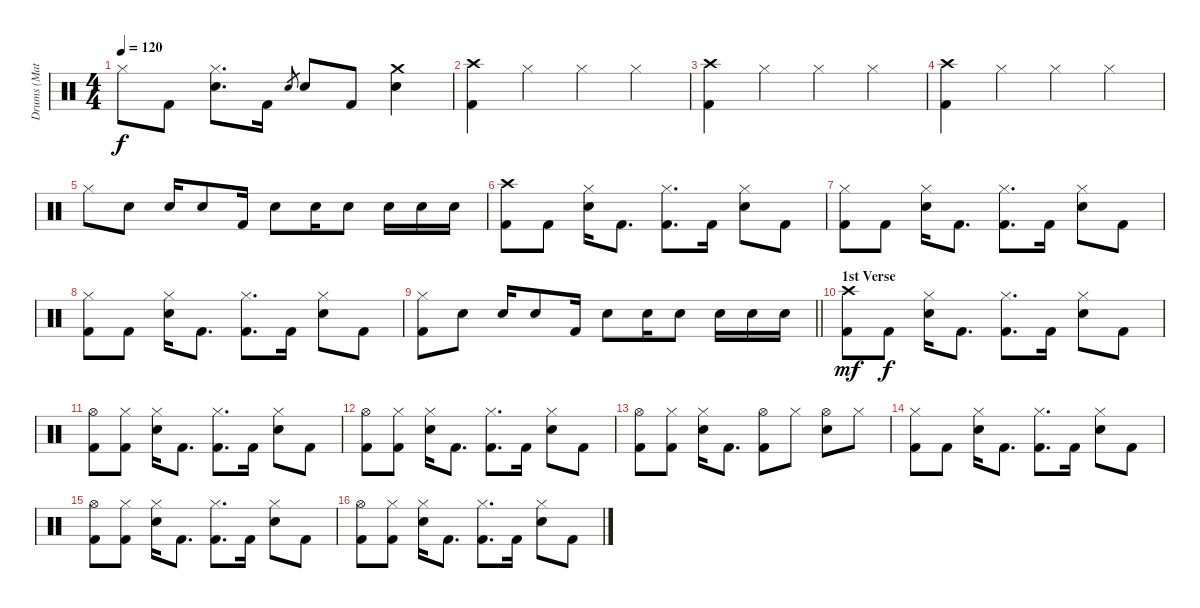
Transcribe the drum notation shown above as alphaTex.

\track ("Drums (Matt)" "Drums (Mat") {instrument percussion}
\staff {score}
\articulation defaults
\ts (4 4)
\tempo 120
\clef neutral
\ks c "Hi-Hat (closed)".8{dy f} "Kick (hit) 2".8
("Hi-Hat (closed)" "Snare (hit) 2").8{d} "Kick (hit) 2".16 "Snare (hit) 2".8{gr} "Snare (hit) 2".8 "Kick (hit) 2".8 ("Crash medium (hit)" "Snare (hit) 2").4 |
("Crash high (hit)" "Kick (hit) 2").4 "Hi-Hat (closed)".4 "Hi-Hat (closed)".4 "Hi-Hat (closed)".4 |
("Crash high (hit)" "Kick (hit) 2").4 "Hi-Hat (closed)".4 "Hi-Hat (closed)".4 "Hi-Hat (closed)".4 |
("Crash high (hit)" "Kick (hit) 2").4 "Hi-Hat (closed)".4 "Hi-Hat (closed)".4 "Hi-Hat (closed)".4 |
"Hi-Hat (closed)".8 "Snare (hit) 2".8 "Snare (hit) 2".16 "Snare (hit) 2".8 "Kick (hit) 2".16 "Snare (hit) 2".8 "Snare (hit) 2".16 "Snare (hit) 2".8 "Snare (hit) 2".16 "Snare (hit) 2".16 "Snare (hit) 2".16 |
("Crash high (hit)" "Kick (hit) 2").8 "Kick (hit) 2".8 ("Hi-Hat (closed)" "Snare (hit) 2").16 "Kick (hit) 2".8{d} ("Hi-Hat (closed)" "Kick (hit) 2").8{d} "Kick (hit) 2".16 ("Hi-Hat (closed)" "Snare (hit) 2").8 "Kick (hit) 2".8 |
("Hi-Hat (closed)" "Kick (hit) 2").8 "Kick (hit) 2".8 ("Hi-Hat (closed)" "Snare (hit) 2").16 "Kick (hit) 2".8{d} ("Hi-Hat (closed)" "Kick (hit) 2").8{d} "Kick (hit) 2".16 ("Hi-Hat (closed)" "Snare (hit) 2").8 "Kick (hit) 2".8 |
("Hi-Hat (closed)" "Kick (hit) 2").8 "Kick (hit) 2".8 ("Hi-Hat (closed)" "Snare (hit) 2").16 "Kick (hit) 2".8{d} ("Hi-Hat (closed)" "Kick (hit) 2").8{d} "Kick (hit) 2".16 ("Hi-Hat (closed)" "Snare (hit) 2").8 "Kick (hit) 2".8 |
\barLineRight lightlight
("Hi-Hat (closed)" "Kick (hit) 2").8 "Snare (hit) 2".8 "Snare (hit) 2".16 "Snare (hit) 2".8 "Kick (hit) 2".16 "Snare (hit) 2".8 "Snare (hit) 2".16 "Snare (hit) 2".8 "Snare (hit) 2".16 "Snare (hit) 2".16 "Snare (hit) 2".16 |
\section ("" "1st Verse")
("Crash high (hit)" "Kick (hit) 2").8{dy mf} "Kick (hit) 2".8{dy f} ("Hi-Hat (closed)" "Snare (hit) 2").16 "Kick (hit) 2".8{d} ("Hi-Hat (closed)" "Kick (hit) 2").8{d} "Kick (hit) 2".16 ("Hi-Hat (closed)" "Snare (hit) 2").8 "Kick (hit) 2".8 |
("Hi-Hat (open)" "Kick (hit) 2").8 ("Hi-Hat (closed)" "Kick (hit) 2").8 ("Hi-Hat (closed)" "Snare (hit) 2").16 "Kick (hit) 2".8{d} ("Hi-Hat (closed)" "Kick (hit) 2").8{d} "Kick (hit) 2".16 ("Hi-Hat (closed)" "Snare (hit) 2").8 "Kick (hit) 2".8 |
("Hi-Hat (open)" "Kick (hit) 2").8 ("Hi-Hat (closed)" "Kick (hit) 2").8 ("Hi-Hat (closed)" "Snare (hit) 2").16 "Kick (hit) 2".8{d} ("Hi-Hat (closed)" "Kick (hit) 2").8{d} "Kick (hit) 2".16 ("Hi-Hat (closed)" "Snare (hit) 2").8 "Kick (hit) 2".8 |
("Hi-Hat (open)" "Kick (hit) 2").8 ("Hi-Hat (closed)" "Kick (hit) 2").8 ("Hi-Hat (closed)" "Snare (hit) 2").16 "Kick (hit) 2".8{d} ("Hi-Hat (open)" "Kick (hit) 2").8 "Hi-Hat (closed)".8 ("Hi-Hat (open)" "Snare (hit) 2").8 "Hi-Hat (closed)".8 |
("Hi-Hat (closed)" "Kick (hit) 2").8 "Kick (hit) 2".8 ("Hi-Hat (closed)" "Snare (hit) 2").16 "Kick (hit) 2".8{d} ("Hi-Hat (closed)" "Kick (hit) 2").8{d} "Kick (hit) 2".16 ("Hi-Hat (closed)" "Snare (hit) 2").8 "Kick (hit) 2".8 |
("Hi-Hat (open)" "Kick (hit) 2").8 ("Hi-Hat (closed)" "Kick (hit) 2").8 ("Hi-Hat (closed)" "Snare (hit) 2").16 "Kick (hit) 2".8{d} ("Hi-Hat (closed)" "Kick (hit) 2").8{d} "Kick (hit) 2".16 ("Hi-Hat (closed)" "Snare (hit) 2").8 "Kick (hit) 2".8 |
("Hi-Hat (open)" "Kick (hit) 2").8 ("Hi-Hat (closed)" "Kick (hit) 2").8 ("Hi-Hat (closed)" "Snare (hit) 2").16 "Kick (hit) 2".8{d} ("Hi-Hat (closed)" "Kick (hit) 2").8{d} "Kick (hit) 2".16 ("Hi-Hat (closed)" "Snare (hit) 2").8 "Kick (hit) 2".8
